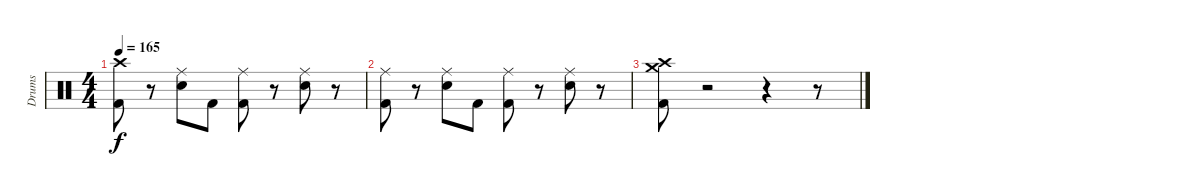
\track ("Drums" "Drums") {instrument percussion}
\staff {score}
\articulation defaults
\ts (4 4)
\tempo 165
\clef neutral
\ks c
("Crash high (hit)" "Kick (hit) 2").8{dy f} r.8 ("Ride (middle)" "Electric Snare (hit)").8 "Kick (hit) 2".8 ("Ride (middle)" "Kick (hit) 2").8 r.8 ("Ride (middle)" "Electric Snare (hit)").8 r.8 |
("Ride (middle)" "Kick (hit) 2").8 r.8 ("Ride (middle)" "Electric Snare (hit)").8 "Kick (hit) 2".8 ("Ride (middle)" "Kick (hit) 2").8 r.8 ("Ride (middle)" "Electric Snare (hit)").8 r.8 |
("Kick (hit) 2" "Crash medium (hit)" "Crash high (hit)").8 r.2 r.4 r.8
